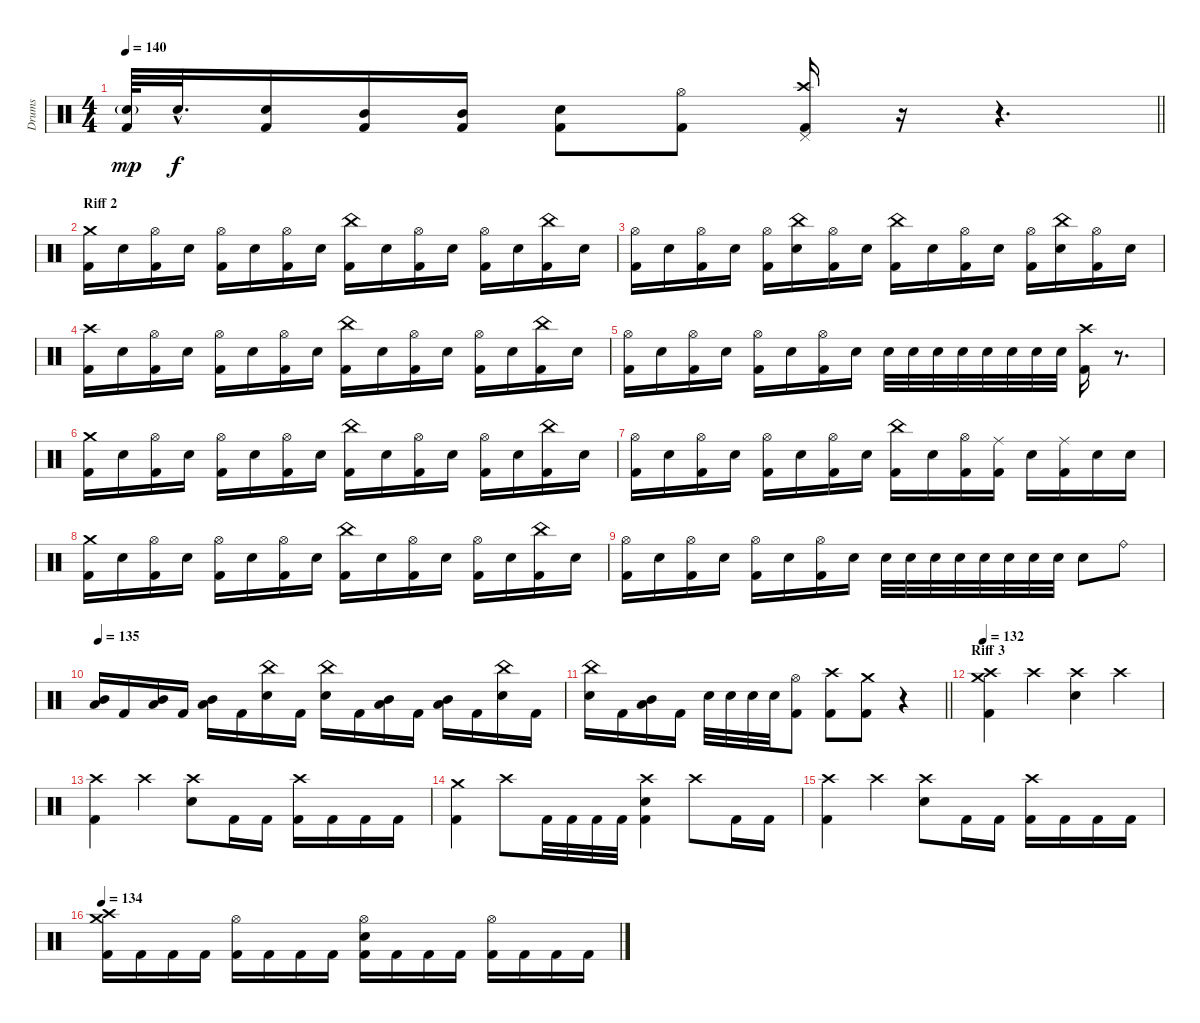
\track ("Drums" "Drums") {instrument percussion}
\staff {score}
\articulation defaults
\ts (4 4)
\tempo 140
\clef neutral
\barLineRight lightlight
\ks c
("Electric Snare (hit)"{g} "Kick (hit) 2").64{dy mp} "Electric Snare (hit)"{hac}.32{d dy f} ("Electric Snare (hit)" "Kick (hit) 2").16 ("Mid Tom (hit)" "Kick (hit) 2").16 ("Mid Tom (hit)" "Kick (hit) 2").16 ("Electric Snare (hit)" "Kick (hit) 2").8 ("Hi-Hat (open)" "Kick (hit) 2").8 ("Crash high (hit)" "Pedal Hi-Hat (hit)" "Kick (hit) 2").16 r.16{volume 0} r.4{d} |
\section ("" "Riff 2")
("Crash medium (hit)" "Kick (hit) 2").16{volume 13} "Electric Snare (hit)".16 ("Hi-Hat (open)" "Kick (hit) 2").16 "Electric Snare (hit)".16 ("Hi-Hat (open)" "Kick (hit) 2").16 "Electric Snare (hit)".16 ("Hi-Hat (open)" "Kick (hit) 2").16 "Electric Snare (hit)".16 ("China (hit)" "Kick (hit) 2").16 "Electric Snare (hit)".16 ("Hi-Hat (open)" "Kick (hit) 2").16 "Electric Snare (hit)".16 ("Hi-Hat (open)" "Kick (hit) 2").16 "Electric Snare (hit)".16 ("China (hit)" "Kick (hit) 2").16 "Electric Snare (hit)".16 |
("Hi-Hat (open)" "Kick (hit) 2").16 "Electric Snare (hit)".16 ("Hi-Hat (open)" "Kick (hit) 2").16 "Electric Snare (hit)".16 ("Hi-Hat (open)" "Kick (hit) 2").16 ("China (hit)" "Electric Snare (hit)").16 ("Hi-Hat (open)" "Kick (hit) 2").16 "Electric Snare (hit)".16 ("China (hit)" "Kick (hit) 2").16 "Electric Snare (hit)".16 ("Hi-Hat (open)" "Kick (hit) 2").16 "Electric Snare (hit)".16 ("Hi-Hat (open)" "Kick (hit) 2").16 ("China (hit)" "Electric Snare (hit)").16 ("Hi-Hat (open)" "Kick (hit) 2").16 "Electric Snare (hit)".16 |
("Crash high (hit)" "Kick (hit) 2").16 "Electric Snare (hit)".16 ("Hi-Hat (open)" "Kick (hit) 2").16 "Electric Snare (hit)".16 ("Hi-Hat (open)" "Kick (hit) 2").16 "Electric Snare (hit)".16 ("Hi-Hat (open)" "Kick (hit) 2").16 "Electric Snare (hit)".16 ("China (hit)" "Kick (hit) 2").16 "Electric Snare (hit)".16 ("Hi-Hat (open)" "Kick (hit) 2").16 "Electric Snare (hit)".16 ("Hi-Hat (open)" "Kick (hit) 2").16 "Electric Snare (hit)".16 ("China (hit)" "Kick (hit) 2").16 "Electric Snare (hit)".16 |
("Hi-Hat (open)" "Kick (hit) 2").16 "Electric Snare (hit)".16 ("Hi-Hat (open)" "Kick (hit) 2").16 "Electric Snare (hit)".16 ("Hi-Hat (open)" "Kick (hit) 2").16 "Electric Snare (hit)".16 ("Hi-Hat (open)" "Kick (hit) 2").16 "Electric Snare (hit)".16 "Electric Snare (hit)".32 "Electric Snare (hit)".32 "Electric Snare (hit)".32 "Electric Snare (hit)".32 "Electric Snare (hit)".32 "Electric Snare (hit)".32 "Electric Snare (hit)".32 "Electric Snare (hit)".32 ("Crash high (hit)" "Kick (hit) 2").16 r.8{d volume 0} |
("Crash medium (hit)" "Kick (hit) 2").16{volume 13} "Electric Snare (hit)".16 ("Hi-Hat (open)" "Kick (hit) 2").16 "Electric Snare (hit)".16 ("Hi-Hat (open)" "Kick (hit) 2").16 "Electric Snare (hit)".16 ("Hi-Hat (open)" "Kick (hit) 2").16 "Electric Snare (hit)".16 ("China (hit)" "Kick (hit) 2").16 "Electric Snare (hit)".16 ("Hi-Hat (open)" "Kick (hit) 2").16 "Electric Snare (hit)".16 ("Hi-Hat (open)" "Kick (hit) 2").16 "Electric Snare (hit)".16 ("China (hit)" "Kick (hit) 2").16 "Electric Snare (hit)".16 |
("Hi-Hat (open)" "Kick (hit) 2").16 "Electric Snare (hit)".16 ("Hi-Hat (open)" "Kick (hit) 2").16 "Electric Snare (hit)".16 ("Hi-Hat (open)" "Kick (hit) 2").16 "Electric Snare (hit)".16 ("Hi-Hat (open)" "Kick (hit) 2").16 "Electric Snare (hit)".16 ("China (hit)" "Kick (hit) 2").16 "Electric Snare (hit)".16 ("Hi-Hat (open)" "Kick (hit) 2").16 ("Ride (middle)" "Kick (hit) 2").16 "Electric Snare (hit)".16 ("Ride (middle)" "Kick (hit) 2").16 "Electric Snare (hit)".16 "Electric Snare (hit)".16 |
("Crash medium (hit)" "Kick (hit) 2").16 "Electric Snare (hit)".16 ("Hi-Hat (open)" "Kick (hit) 2").16 "Electric Snare (hit)".16 ("Hi-Hat (open)" "Kick (hit) 2").16 "Electric Snare (hit)".16 ("Hi-Hat (open)" "Kick (hit) 2").16 "Electric Snare (hit)".16 ("China (hit)" "Kick (hit) 2").16 "Electric Snare (hit)".16 ("Hi-Hat (open)" "Kick (hit) 2").16 "Electric Snare (hit)".16 ("Hi-Hat (open)" "Kick (hit) 2").16 "Electric Snare (hit)".16 ("China (hit)" "Kick (hit) 2").16 "Electric Snare (hit)".16 |
("Hi-Hat (open)" "Kick (hit) 2").16 "Electric Snare (hit)".16 ("Hi-Hat (open)" "Kick (hit) 2").16 "Electric Snare (hit)".16 ("Hi-Hat (open)" "Kick (hit) 2").16 "Electric Snare (hit)".16 ("Hi-Hat (open)" "Kick (hit) 2").16 "Electric Snare (hit)".16 "Electric Snare (hit)".32 "Electric Snare (hit)".32 "Electric Snare (hit)".32 "Electric Snare (hit)".32 "Electric Snare (hit)".32 "Electric Snare (hit)".32 "Electric Snare (hit)".32 "Electric Snare (hit)".32 "Electric Snare (hit)".8 "Ride (bell)".8 |
\tempo 135
("Low Tom (hit)" "Mid Tom (hit)").16 "Kick (hit) 2".16 ("Low Tom (hit)" "Mid Tom (hit)").16 "Kick (hit) 2".16 ("Low Tom (hit)" "Mid Tom (hit)").16 "Kick (hit) 2".16 ("China (hit)" "Electric Snare (hit)").16 "Kick (hit) 2".16 ("China (hit)" "Electric Snare (hit)").16 "Kick (hit) 2".16 ("Low Tom (hit)" "Mid Tom (hit)").16 "Kick (hit) 2".16 ("Low Tom (hit)" "Mid Tom (hit)").16 "Kick (hit) 2".16 ("China (hit)" "Electric Snare (hit)").16 "Kick (hit) 2".16 |
\barLineRight lightlight
("China (hit)" "Electric Snare (hit)").16 "Kick (hit) 2".16 ("Low Tom (hit)" "Mid Tom (hit)").16 "Kick (hit) 2".16 "Electric Snare (hit)".32 "Electric Snare (hit)".32 "Electric Snare (hit)".32 "Electric Snare (hit)".32 ("Hi-Hat (open)" "Kick (hit) 2").8 ("Crash high (hit)" "Kick (hit) 2").8 ("Crash medium (hit)" "Kick (hit) 2").8 r.4{volume 0} |
\section ("" "Riff 3")
\tempo 132
("Crash medium (hit)" "Crash high (hit)" "Kick (hit) 2").4{volume 13} "Crash high (hit)".4 ("Crash high (hit)" "Electric Snare (hit)").4 "Crash high (hit)".4 |
("Crash high (hit)" "Kick (hit) 2").4 "Crash high (hit)".4 ("Crash high (hit)" "Electric Snare (hit)").8 "Kick (hit) 2".16 "Kick (hit) 2".16 ("Crash high (hit)" "Kick (hit) 2").16 "Kick (hit) 2".16 "Kick (hit) 2".16 "Kick (hit) 2".16 |
("Crash medium (hit)" "Kick (hit) 2").4 "Crash high (hit)".8 "Kick (hit) 2".32 "Kick (hit) 2".32 "Kick (hit) 2".32 "Kick (hit) 2".32 ("Crash high (hit)" "Electric Snare (hit)" "Kick (hit) 2").4 "Crash high (hit)".8 "Kick (hit) 2".16 "Kick (hit) 2".16 |
("Crash high (hit)" "Kick (hit) 2").4 "Crash high (hit)".4 ("Crash high (hit)" "Electric Snare (hit)").8 "Kick (hit) 2".16 "Kick (hit) 2".16 ("Crash high (hit)" "Kick (hit) 2").16 "Kick (hit) 2".16 "Kick (hit) 2".16 "Kick (hit) 2".16 |
\tempo 134
("Crash medium (hit)" "Crash high (hit)" "Kick (hit) 2").16 "Kick (hit) 2".16 "Kick (hit) 2".16 "Kick (hit) 2".16 ("Hi-Hat (open)" "Kick (hit) 2").16 "Kick (hit) 2".16 "Kick (hit) 2".16 "Kick (hit) 2".16 ("Hi-Hat (open)" "Electric Snare (hit)" "Kick (hit) 2").16 "Kick (hit) 2".16 "Kick (hit) 2".16 "Kick (hit) 2".16 ("Hi-Hat (open)" "Kick (hit) 2").16 "Kick (hit) 2".16 "Kick (hit) 2".16 "Kick (hit) 2".16
